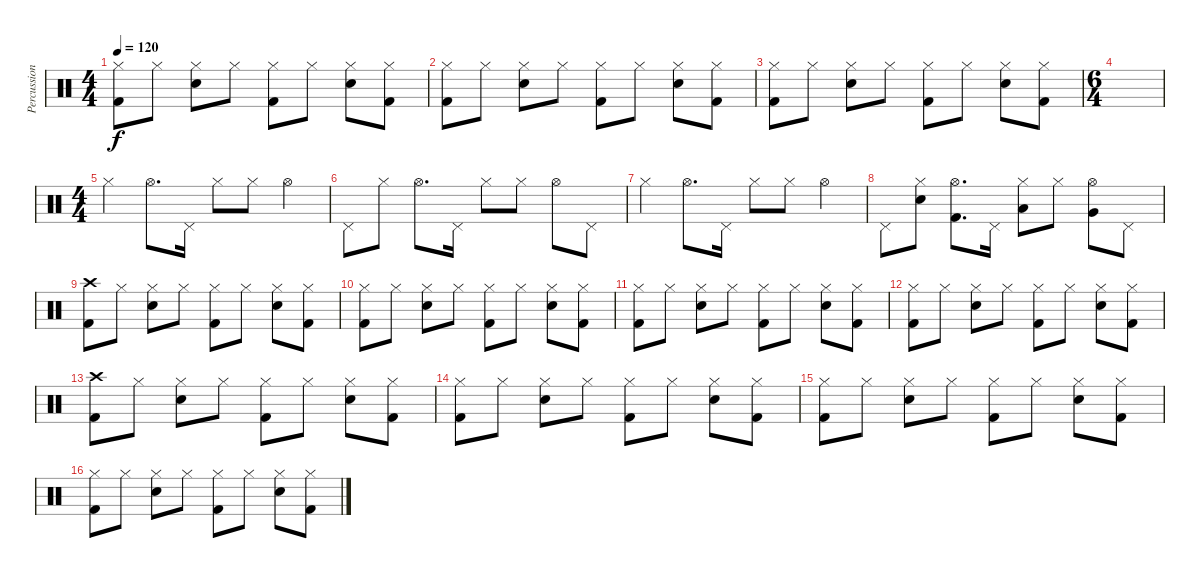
\track ("Percussions" "Percussion") {instrument percussion}
\staff {score}
\articulation defaults
\ts (4 4)
\tempo 120
\clef neutral
\ks c
("Hi-Hat (closed)" "Kick (hit) 2").8{dy f} "Hi-Hat (closed)".8 ("Hi-Hat (closed)" "Electric Snare (hit)").8 "Hi-Hat (closed)".8 ("Hi-Hat (closed)" "Kick (hit) 2").8 "Hi-Hat (closed)".8 ("Hi-Hat (closed)" "Electric Snare (hit)").8 ("Hi-Hat (closed)" "Kick (hit) 2").8 |
("Hi-Hat (closed)" "Kick (hit) 2").8 "Hi-Hat (closed)".8 ("Hi-Hat (closed)" "Electric Snare (hit)").8 "Hi-Hat (closed)".8 ("Hi-Hat (closed)" "Kick (hit) 2").8 "Hi-Hat (closed)".8 ("Hi-Hat (closed)" "Electric Snare (hit)").8 ("Hi-Hat (closed)" "Kick (hit) 2").8 |
("Hi-Hat (closed)" "Kick (hit) 2").8 "Hi-Hat (closed)".8 ("Hi-Hat (closed)" "Electric Snare (hit)").8 "Hi-Hat (closed)".8 ("Hi-Hat (closed)" "Kick (hit) 2").8 "Hi-Hat (closed)".8 ("Hi-Hat (closed)" "Electric Snare (hit)").8 ("Hi-Hat (closed)" "Kick (hit) 2").8 |
\ts (6 4)
|
\ts (4 4)
"Hi-Hat (closed)".4 "Hi-Hat (open)".8{d} "Pedal Hi-Hat (hit)".16 "Hi-Hat (closed)".8 "Hi-Hat (closed)".8 "Hi-Hat (open)".4 |
"Pedal Hi-Hat (hit)".8 "Hi-Hat (closed)".8 "Hi-Hat (open)".8{d} "Pedal Hi-Hat (hit)".16 "Hi-Hat (closed)".8 "Hi-Hat (closed)".8 "Hi-Hat (open)".8 "Pedal Hi-Hat (hit)".8 |
"Hi-Hat (closed)".4 "Hi-Hat (open)".8{d} "Pedal Hi-Hat (hit)".16 "Hi-Hat (closed)".8 "Hi-Hat (closed)".8 "Hi-Hat (open)".4 |
"Pedal Hi-Hat (hit)".8 ("Hi-Hat (closed)" "Electric Snare (hit)").8 ("Hi-Hat (open)" "Kick (hit) 2").8{d} "Pedal Hi-Hat (hit)".16 ("Hi-Hat (closed)" "Low Tom (hit)").8 "Hi-Hat (closed)".8 ("Hi-Hat (open)" "Very Low Tom (hit)").8 "Pedal Hi-Hat (hit)".8 |
("Crash high (hit)" "Kick (hit) 2").8 "Hi-Hat (closed)".8 ("Hi-Hat (closed)" "Electric Snare (hit)").8 "Hi-Hat (closed)".8 ("Hi-Hat (closed)" "Kick (hit) 2").8 "Hi-Hat (closed)".8 ("Hi-Hat (closed)" "Electric Snare (hit)").8 ("Hi-Hat (closed)" "Kick (hit) 2").8 |
("Hi-Hat (closed)" "Kick (hit) 2").8 "Hi-Hat (closed)".8 ("Hi-Hat (closed)" "Electric Snare (hit)").8 "Hi-Hat (closed)".8 ("Hi-Hat (closed)" "Kick (hit) 2").8 "Hi-Hat (closed)".8 ("Hi-Hat (closed)" "Electric Snare (hit)").8 ("Hi-Hat (closed)" "Kick (hit) 2").8 |
("Hi-Hat (closed)" "Kick (hit) 2").8 "Hi-Hat (closed)".8 ("Hi-Hat (closed)" "Electric Snare (hit)").8 "Hi-Hat (closed)".8 ("Hi-Hat (closed)" "Kick (hit) 2").8 "Hi-Hat (closed)".8 ("Hi-Hat (closed)" "Electric Snare (hit)").8 ("Hi-Hat (closed)" "Kick (hit) 2").8 |
("Hi-Hat (closed)" "Kick (hit) 2").8 "Hi-Hat (closed)".8 ("Hi-Hat (closed)" "Electric Snare (hit)").8 "Hi-Hat (closed)".8 ("Hi-Hat (closed)" "Kick (hit) 2").8 "Hi-Hat (closed)".8 ("Hi-Hat (closed)" "Electric Snare (hit)").8 ("Hi-Hat (closed)" "Kick (hit) 2").8 |
("Crash high (hit)" "Kick (hit) 2").8 "Hi-Hat (closed)".8 ("Hi-Hat (closed)" "Electric Snare (hit)").8 "Hi-Hat (closed)".8 ("Hi-Hat (closed)" "Kick (hit) 2").8 "Hi-Hat (closed)".8 ("Hi-Hat (closed)" "Electric Snare (hit)").8 ("Hi-Hat (closed)" "Kick (hit) 2").8 |
("Hi-Hat (closed)" "Kick (hit) 2").8 "Hi-Hat (closed)".8 ("Hi-Hat (closed)" "Electric Snare (hit)").8 "Hi-Hat (closed)".8 ("Hi-Hat (closed)" "Kick (hit) 2").8 "Hi-Hat (closed)".8 ("Hi-Hat (closed)" "Electric Snare (hit)").8 ("Hi-Hat (closed)" "Kick (hit) 2").8 |
("Hi-Hat (closed)" "Kick (hit) 2").8 "Hi-Hat (closed)".8 ("Hi-Hat (closed)" "Electric Snare (hit)").8 "Hi-Hat (closed)".8 ("Hi-Hat (closed)" "Kick (hit) 2").8 "Hi-Hat (closed)".8 ("Hi-Hat (closed)" "Electric Snare (hit)").8 ("Hi-Hat (closed)" "Kick (hit) 2").8 |
("Hi-Hat (closed)" "Kick (hit) 2").8 "Hi-Hat (closed)".8 ("Hi-Hat (closed)" "Electric Snare (hit)").8 "Hi-Hat (closed)".8 ("Hi-Hat (closed)" "Kick (hit) 2").8 "Hi-Hat (closed)".8 ("Hi-Hat (closed)" "Electric Snare (hit)").8 ("Hi-Hat (closed)" "Kick (hit) 2").8
